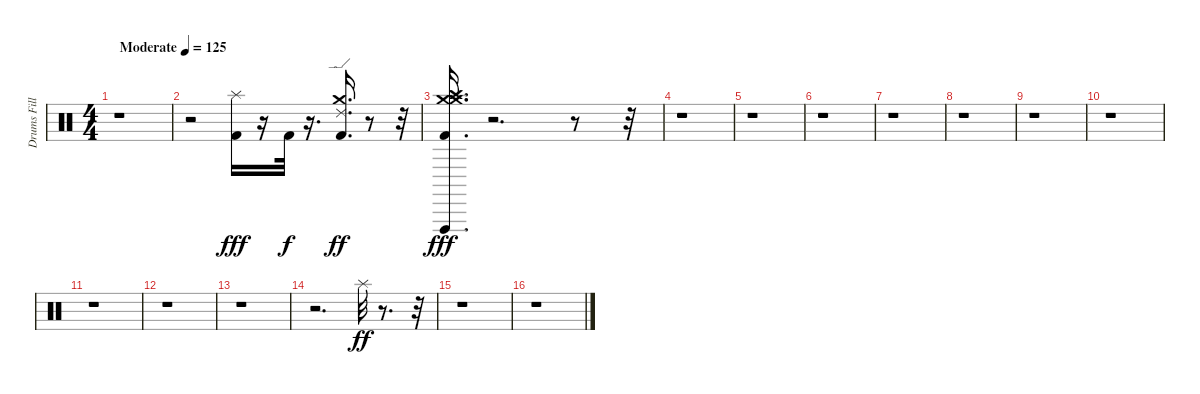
\track ("Drums Fill" "Drums Fill") {instrument percussion}
\staff {score}
\articulation defaults
\ts (4 4)
\tempo (125 "Moderate")
\clef neutral
\ks c
r.1{dy fff} |
r.2 ("Splash (hit)" "Kick (hit) 2").16 r.16 "Kick (hit) 2".32{dy f} r.16{d} ("Crash medium (hit)" "Ride (edge) 2" "Kick (hit) 2").16{d dy ff} r.8 r.32 |
("Crash medium (hit)" "Crash medium (hit)" "Crash high (hit)" "Vibraslap (hit)" "Kick (hit) 2").16{d dy fff} r.2{d} r.8 r.32 |
r.1 |
r.1 |
r.1 |
r.1 |
r.1 |
r.1 |
r.1 |
r.1 |
r.1 |
r.1 |
r.2{d} "Splash (hit)".32{dy ff} r.8{d} r.32 |
r.1 |
r.1
